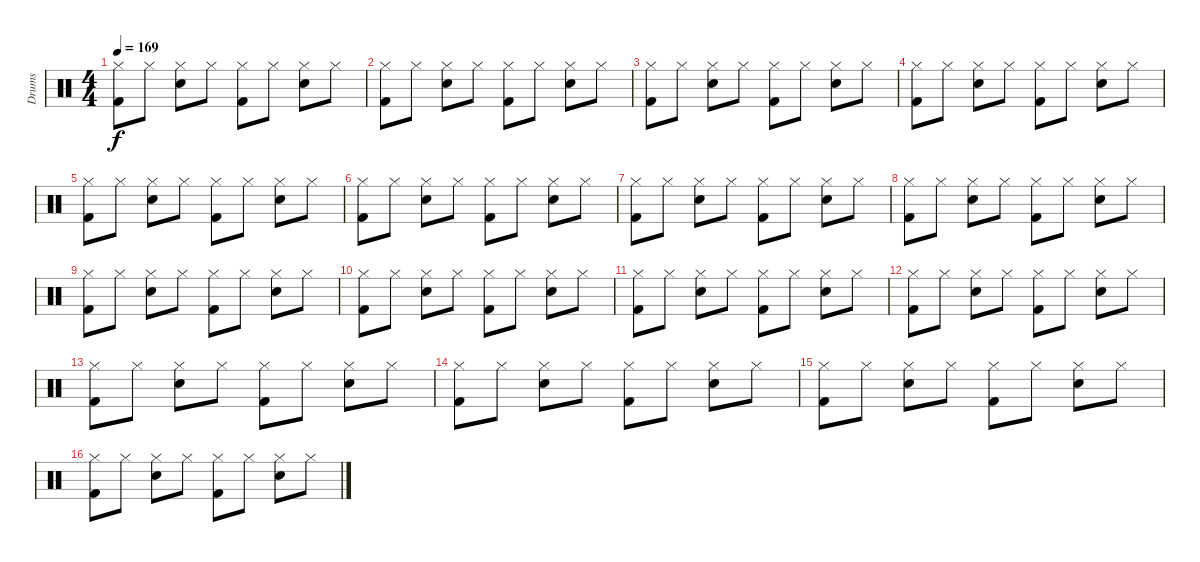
\track ("Drums" "Drums") {instrument percussion}
\staff {score}
\articulation defaults
\ts (4 4)
\tempo 169
\clef neutral
\ks c
("Hi-Hat (closed)" "Kick (hit) 2").8{dy f} "Hi-Hat (closed)".8 ("Hi-Hat (closed)" "Snare (hit) 2").8 "Hi-Hat (closed)".8 ("Hi-Hat (closed)" "Kick (hit) 2").8 "Hi-Hat (closed)".8 ("Hi-Hat (closed)" "Snare (hit) 2").8 "Hi-Hat (closed)".8 |
("Hi-Hat (closed)" "Kick (hit) 2").8 "Hi-Hat (closed)".8 ("Hi-Hat (closed)" "Snare (hit) 2").8 "Hi-Hat (closed)".8 ("Hi-Hat (closed)" "Kick (hit) 2").8 "Hi-Hat (closed)".8 ("Hi-Hat (closed)" "Snare (hit) 2").8 "Hi-Hat (closed)".8 |
("Hi-Hat (closed)" "Kick (hit) 2").8 "Hi-Hat (closed)".8 ("Hi-Hat (closed)" "Snare (hit) 2").8 "Hi-Hat (closed)".8 ("Hi-Hat (closed)" "Kick (hit) 2").8 "Hi-Hat (closed)".8 ("Hi-Hat (closed)" "Snare (hit) 2").8 "Hi-Hat (closed)".8 |
("Hi-Hat (closed)" "Kick (hit) 2").8 "Hi-Hat (closed)".8 ("Hi-Hat (closed)" "Snare (hit) 2").8 "Hi-Hat (closed)".8 ("Hi-Hat (closed)" "Kick (hit) 2").8 "Hi-Hat (closed)".8 ("Hi-Hat (closed)" "Snare (hit) 2").8 "Hi-Hat (closed)".8 |
("Hi-Hat (closed)" "Kick (hit) 2").8 "Hi-Hat (closed)".8 ("Hi-Hat (closed)" "Snare (hit) 2").8 "Hi-Hat (closed)".8 ("Hi-Hat (closed)" "Kick (hit) 2").8 "Hi-Hat (closed)".8 ("Hi-Hat (closed)" "Snare (hit) 2").8 "Hi-Hat (closed)".8 |
("Hi-Hat (closed)" "Kick (hit) 2").8 "Hi-Hat (closed)".8 ("Hi-Hat (closed)" "Snare (hit) 2").8 "Hi-Hat (closed)".8 ("Hi-Hat (closed)" "Kick (hit) 2").8 "Hi-Hat (closed)".8 ("Hi-Hat (closed)" "Snare (hit) 2").8 "Hi-Hat (closed)".8 |
("Hi-Hat (closed)" "Kick (hit) 2").8 "Hi-Hat (closed)".8 ("Hi-Hat (closed)" "Snare (hit) 2").8 "Hi-Hat (closed)".8 ("Hi-Hat (closed)" "Kick (hit) 2").8 "Hi-Hat (closed)".8 ("Hi-Hat (closed)" "Snare (hit) 2").8 "Hi-Hat (closed)".8 |
("Hi-Hat (closed)" "Kick (hit) 2").8 "Hi-Hat (closed)".8 ("Hi-Hat (closed)" "Snare (hit) 2").8 "Hi-Hat (closed)".8 ("Hi-Hat (closed)" "Kick (hit) 2").8 "Hi-Hat (closed)".8 ("Hi-Hat (closed)" "Snare (hit) 2").8 "Hi-Hat (closed)".8 |
("Hi-Hat (closed)" "Kick (hit) 2").8 "Hi-Hat (closed)".8 ("Hi-Hat (closed)" "Snare (hit) 2").8 "Hi-Hat (closed)".8 ("Hi-Hat (closed)" "Kick (hit) 2").8 "Hi-Hat (closed)".8 ("Hi-Hat (closed)" "Snare (hit) 2").8 "Hi-Hat (closed)".8 |
("Hi-Hat (closed)" "Kick (hit) 2").8 "Hi-Hat (closed)".8 ("Hi-Hat (closed)" "Snare (hit) 2").8 "Hi-Hat (closed)".8 ("Hi-Hat (closed)" "Kick (hit) 2").8 "Hi-Hat (closed)".8 ("Hi-Hat (closed)" "Snare (hit) 2").8 "Hi-Hat (closed)".8 |
("Hi-Hat (closed)" "Kick (hit) 2").8 "Hi-Hat (closed)".8 ("Hi-Hat (closed)" "Snare (hit) 2").8 "Hi-Hat (closed)".8 ("Hi-Hat (closed)" "Kick (hit) 2").8 "Hi-Hat (closed)".8 ("Hi-Hat (closed)" "Snare (hit) 2").8 "Hi-Hat (closed)".8 |
("Hi-Hat (closed)" "Kick (hit) 2").8 "Hi-Hat (closed)".8 ("Hi-Hat (closed)" "Snare (hit) 2").8 "Hi-Hat (closed)".8 ("Hi-Hat (closed)" "Kick (hit) 2").8 "Hi-Hat (closed)".8 ("Hi-Hat (closed)" "Snare (hit) 2").8 "Hi-Hat (closed)".8 |
("Hi-Hat (closed)" "Kick (hit) 2").8 "Hi-Hat (closed)".8 ("Hi-Hat (closed)" "Snare (hit) 2").8 "Hi-Hat (closed)".8 ("Hi-Hat (closed)" "Kick (hit) 2").8 "Hi-Hat (closed)".8 ("Hi-Hat (closed)" "Snare (hit) 2").8 "Hi-Hat (closed)".8 |
("Hi-Hat (closed)" "Kick (hit) 2").8 "Hi-Hat (closed)".8 ("Hi-Hat (closed)" "Snare (hit) 2").8 "Hi-Hat (closed)".8 ("Hi-Hat (closed)" "Kick (hit) 2").8 "Hi-Hat (closed)".8 ("Hi-Hat (closed)" "Snare (hit) 2").8 "Hi-Hat (closed)".8 |
("Hi-Hat (closed)" "Kick (hit) 2").8 "Hi-Hat (closed)".8 ("Hi-Hat (closed)" "Snare (hit) 2").8 "Hi-Hat (closed)".8 ("Hi-Hat (closed)" "Kick (hit) 2").8 "Hi-Hat (closed)".8 ("Hi-Hat (closed)" "Snare (hit) 2").8 "Hi-Hat (closed)".8 |
("Hi-Hat (closed)" "Kick (hit) 2").8 "Hi-Hat (closed)".8 ("Hi-Hat (closed)" "Snare (hit) 2").8 "Hi-Hat (closed)".8 ("Hi-Hat (closed)" "Kick (hit) 2").8 "Hi-Hat (closed)".8 ("Hi-Hat (closed)" "Snare (hit) 2").8 "Hi-Hat (closed)".8
